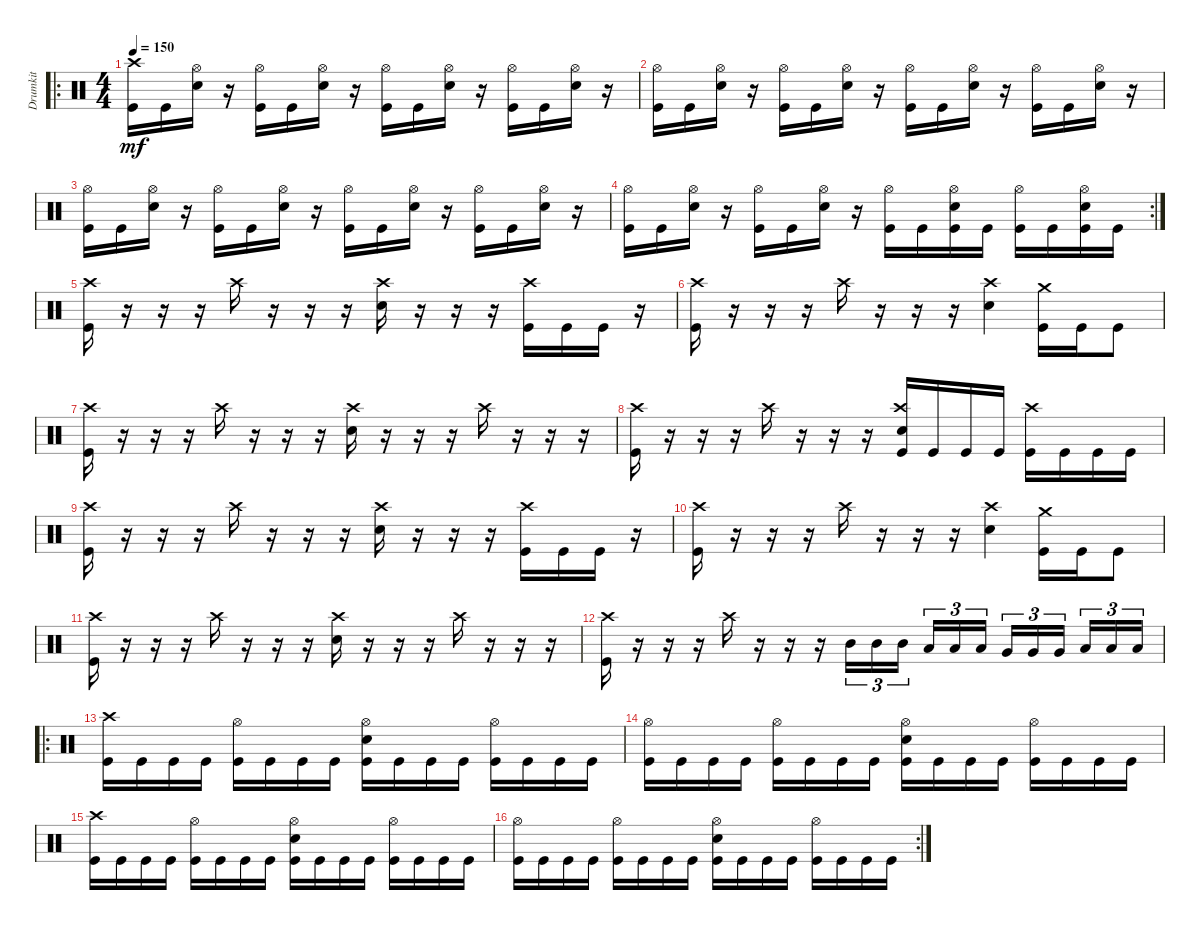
\track ("Drumkit" "Drumkit") {instrument percussion}
\staff {score}
\articulation defaults
\ro
\ts (4 4)
\tempo 150
\clef neutral
\ks c
("Kick (hit)" "Crash high (hit)").16{dy mf} "Kick (hit)".16 ("Snare (hit) 2" "Hi-Hat (open)").16 r.16 ("Kick (hit)" "Hi-Hat (open)").16 "Kick (hit)".16 ("Snare (hit) 2" "Hi-Hat (open)").16 r.16 ("Kick (hit)" "Hi-Hat (open)").16 "Kick (hit)".16 ("Snare (hit) 2" "Hi-Hat (open)").16 r.16 ("Kick (hit)" "Hi-Hat (open)").16 "Kick (hit)".16 ("Snare (hit) 2" "Hi-Hat (open)").16 r.16 |
("Kick (hit)" "Hi-Hat (open)").16 "Kick (hit)".16 ("Snare (hit) 2" "Hi-Hat (open)").16 r.16 ("Kick (hit)" "Hi-Hat (open)").16 "Kick (hit)".16 ("Snare (hit) 2" "Hi-Hat (open)").16 r.16 ("Kick (hit)" "Hi-Hat (open)").16 "Kick (hit)".16 ("Snare (hit) 2" "Hi-Hat (open)").16 r.16 ("Kick (hit)" "Hi-Hat (open)").16 "Kick (hit)".16 ("Snare (hit) 2" "Hi-Hat (open)").16 r.16 |
("Kick (hit)" "Hi-Hat (open)").16 "Kick (hit)".16 ("Snare (hit) 2" "Hi-Hat (open)").16 r.16 ("Kick (hit)" "Hi-Hat (open)").16 "Kick (hit)".16 ("Snare (hit) 2" "Hi-Hat (open)").16 r.16 ("Kick (hit)" "Hi-Hat (open)").16 "Kick (hit)".16 ("Snare (hit) 2" "Hi-Hat (open)").16 r.16 ("Kick (hit)" "Hi-Hat (open)").16 "Kick (hit)".16 ("Snare (hit) 2" "Hi-Hat (open)").16 r.16 |
\rc 2
("Kick (hit)" "Hi-Hat (open)").16 "Kick (hit)".16 ("Snare (hit) 2" "Hi-Hat (open)").16 r.16 ("Kick (hit)" "Hi-Hat (open)").16 "Kick (hit)".16 ("Snare (hit) 2" "Hi-Hat (open)").16 r.16 ("Kick (hit)" "Hi-Hat (open)").16 "Kick (hit)".16 ("Snare (hit) 2" "Hi-Hat (open)" "Kick (hit)").16 "Kick (hit)".16 ("Kick (hit)" "Hi-Hat (open)").16 "Kick (hit)".16 ("Snare (hit) 2" "Hi-Hat (open)" "Kick (hit)").16 "Kick (hit)".16 |
("Kick (hit)" "Crash high (hit)").16 r.16 r.16 r.16 "Crash high (hit)".16 r.16 r.16 r.16 ("Crash high (hit)" "Snare (hit) 2").16 r.16 r.16 r.16 ("Crash high (hit)" "Kick (hit)").16 "Kick (hit)".16 "Kick (hit)".16 r.16 |
("Kick (hit)" "Crash high (hit)").16 r.16 r.16 r.16 "Crash high (hit)".16 r.16 r.16 r.16 ("Snare (hit) 2" "Crash high (hit)").4 ("Kick (hit)" "Crash medium (hit)").16 "Kick (hit)".16 "Kick (hit)".8 |
("Kick (hit)" "Crash high (hit)").16 r.16 r.16 r.16 "Crash high (hit)".16 r.16 r.16 r.16 ("Crash high (hit)" "Snare (hit) 2").16 r.16 r.16 r.16 "Crash high (hit)".16 r.16 r.16 r.16 |
("Kick (hit)" "Crash high (hit)").16 r.16 r.16 r.16 "Crash high (hit)".16 r.16 r.16 r.16 ("Crash high (hit)" "Snare (hit) 2" "Kick (hit)").16 "Kick (hit)".16 "Kick (hit)".16 "Kick (hit)".16 ("Crash high (hit)" "Kick (hit)").16 "Kick (hit)".16 "Kick (hit)".16 "Kick (hit)".16 |
("Kick (hit)" "Crash high (hit)").16 r.16 r.16 r.16 "Crash high (hit)".16 r.16 r.16 r.16 ("Crash high (hit)" "Snare (hit) 2").16 r.16 r.16 r.16 ("Crash high (hit)" "Kick (hit)").16 "Kick (hit)".16 "Kick (hit)".16 r.16 |
("Kick (hit)" "Crash high (hit)").16 r.16 r.16 r.16 "Crash high (hit)".16 r.16 r.16 r.16 ("Snare (hit) 2" "Crash high (hit)").4 ("Kick (hit)" "Crash medium (hit)").16 "Kick (hit)".16 "Kick (hit)".8 |
("Kick (hit)" "Crash high (hit)").16 r.16 r.16 r.16 "Crash high (hit)".16 r.16 r.16 r.16 ("Crash high (hit)" "Snare (hit) 2").16 r.16 r.16 r.16 "Crash high (hit)".16 r.16 r.16 r.16 |
("Kick (hit)" "Crash high (hit)").16 r.16 r.16 r.16 "Crash high (hit)".16 r.16 r.16 r.16 "Mid Tom (hit)".16{tu (3 2)} "Mid Tom (hit)".16{tu (3 2)} "Mid Tom (hit)".16{tu (3 2) beam splitsecondary} "Low Tom (hit)".16{tu (3 2)} "Low Tom (hit)".16{tu (3 2)} "Low Tom (hit)".16{tu (3 2)} "Very Low Tom (hit)".16{tu (3 2)} "Very Low Tom (hit)".16{tu (3 2)} "Very Low Tom (hit)".16{tu (3 2) beam splitsecondary} "Low Floor Tom (hit)".16{tu (3 2)} "Low Floor Tom (hit)".16{tu (3 2)} "Low Floor Tom (hit)".16{tu (3 2)} |
\ro
("Kick (hit)" "Crash high (hit)").16 "Kick (hit)".16 "Kick (hit)".16 "Kick (hit)".16 ("Kick (hit)" "Hi-Hat (open)").16 "Kick (hit)".16 "Kick (hit)".16 "Kick (hit)".16 ("Kick (hit)" "Hi-Hat (open)" "Snare (hit) 2").16 "Kick (hit)".16 "Kick (hit)".16 "Kick (hit)".16 ("Kick (hit)" "Hi-Hat (open)").16 "Kick (hit)".16 "Kick (hit)".16 "Kick (hit)".16 |
("Kick (hit)" "Hi-Hat (open)").16 "Kick (hit)".16 "Kick (hit)".16 "Kick (hit)".16 ("Kick (hit)" "Hi-Hat (open)").16 "Kick (hit)".16 "Kick (hit)".16 "Kick (hit)".16 ("Kick (hit)" "Hi-Hat (open)" "Snare (hit) 2").16 "Kick (hit)".16 "Kick (hit)".16 "Kick (hit)".16 ("Kick (hit)" "Hi-Hat (open)").16 "Kick (hit)".16 "Kick (hit)".16 "Kick (hit)".16 |
("Kick (hit)" "Crash high (hit)").16 "Kick (hit)".16 "Kick (hit)".16 "Kick (hit)".16 ("Kick (hit)" "Hi-Hat (open)").16 "Kick (hit)".16 "Kick (hit)".16 "Kick (hit)".16 ("Kick (hit)" "Hi-Hat (open)" "Snare (hit) 2").16 "Kick (hit)".16 "Kick (hit)".16 "Kick (hit)".16 ("Kick (hit)" "Hi-Hat (open)").16 "Kick (hit)".16 "Kick (hit)".16 "Kick (hit)".16 |
\rc 2
("Kick (hit)" "Hi-Hat (open)").16 "Kick (hit)".16 "Kick (hit)".16 "Kick (hit)".16 ("Kick (hit)" "Hi-Hat (open)").16 "Kick (hit)".16 "Kick (hit)".16 "Kick (hit)".16 ("Kick (hit)" "Hi-Hat (open)" "Snare (hit) 2").16 "Kick (hit)".16 "Kick (hit)".16 "Kick (hit)".16 ("Kick (hit)" "Hi-Hat (open)").16 "Kick (hit)".16 "Kick (hit)".16 "Kick (hit)".16
